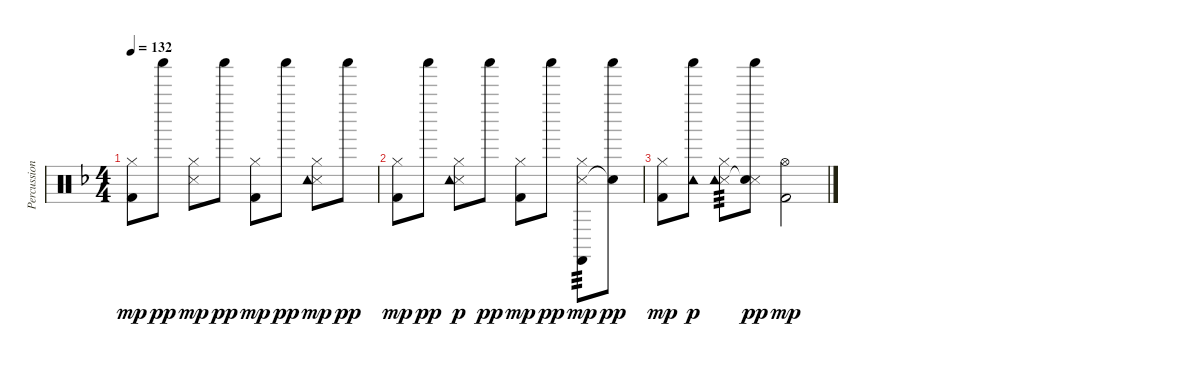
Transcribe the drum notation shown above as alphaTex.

\track ("Percussion" "Percussion") {instrument percussion}
\staff {score}
\articulation defaults
\ts (4 4)
\tempo 132
\clef neutral
\ks f
("Hi-Hat (closed)" "Kick (hit) 2").8{dy mp} "Shaker (hit)".8{dy pp} ("Hi-Hat (closed)" "Snare (side stick) 3").8{dy mp} "Shaker (hit)".8{dy pp} ("Hi-Hat (closed)" "Kick (hit) 2").8{dy mp} "Shaker (hit)".8{dy pp} ("Hi-Hat (closed)" "Snare (side stick) 3" "Tambourine (hit)").8{dy mp} "Shaker (hit)".8{dy pp} |
("Hi-Hat (closed)" "Kick (hit) 2").8{dy mp} "Shaker (hit)".8{dy pp} ("Hi-Hat (closed)" "Snare (side stick) 3" "Tambourine (hit)").8{dy p} "Shaker (hit)".8{dy pp} ("Hi-Hat (closed)" "Kick (hit) 2").8{dy mp} "Shaker (hit)".8{dy pp} ("Hi-Hat (closed)" "Snare (side stick) 3" "Castanets (hit)").8{tp 3 dy mp} ("Shaker (hit)" "Snare (hit)"{t}).8{dy pp} |
("Hi-Hat (closed)" "Kick (hit) 2").8{dy mp} ("Shaker (hit)" "Tambourine (hit)").8{dy p} ("Hi-Hat (closed)" "Snare (side stick) 3" "Tambourine (hit)").8{tp 3} ("Snare (side stick) 3" "Shaker (hit)" "Snare (hit)"{t}).8{dy pp} ("Hi-Hat (open)" "Kick (hit) 2").2{dy mp}
